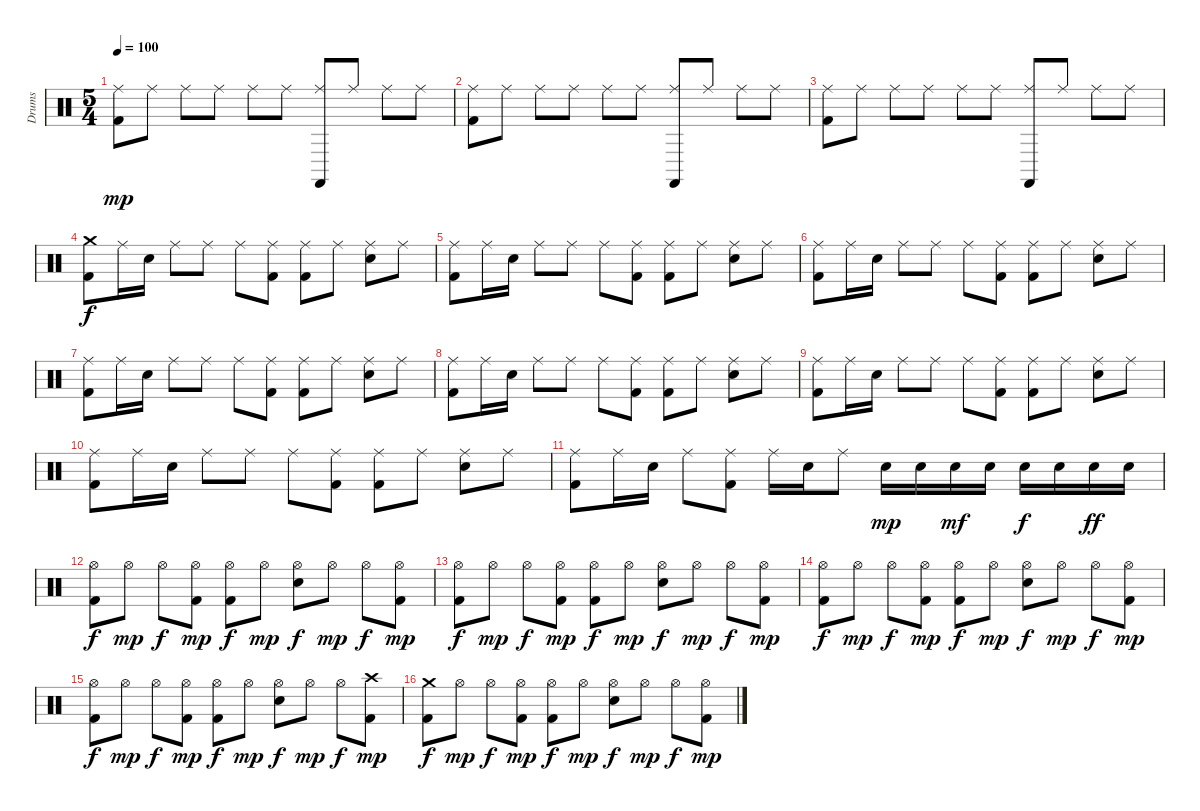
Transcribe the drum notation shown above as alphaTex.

\track ("Drums" "Drums") {instrument percussion}
\staff {score}
\articulation defaults
\ts (5 4)
\tempo 100
\clef neutral
\ks c
("Ride (middle)" "Kick (hit) 2").8{dy mp} "Ride (middle)".8 "Ride (middle)".8 "Ride (middle)".8 "Ride (middle)".8 "Ride (middle)".8 ("Ride (middle)" "Castanets (hit)").8 "Ride (middle)".8 "Ride (middle)".8 "Ride (middle)".8 |
("Ride (middle)" "Kick (hit) 2").8 "Ride (middle)".8 "Ride (middle)".8 "Ride (middle)".8 "Ride (middle)".8 "Ride (middle)".8 ("Ride (middle)" "Castanets (hit)").8 "Ride (middle)".8 "Ride (middle)".8 "Ride (middle)".8 |
("Ride (middle)" "Kick (hit) 2").8 "Ride (middle)".8 "Ride (middle)".8 "Ride (middle)".8 "Ride (middle)".8 "Ride (middle)".8 ("Ride (middle)" "Castanets (hit)").8 "Ride (middle)".8 "Ride (middle)".8 "Ride (middle)".8 |
("Crash medium (hit)" "Kick (hit) 2").8{dy f} "Ride (middle)".16 "Snare (hit) 2".16 "Ride (middle)".8 "Ride (middle)".8 "Ride (middle)".8 ("Ride (middle)" "Kick (hit) 2").8 ("Ride (middle)" "Kick (hit) 2").8 "Ride (middle)".8 ("Ride (middle)" "Snare (hit) 2").8 "Ride (middle)".8 |
("Ride (middle)" "Kick (hit) 2").8 "Ride (middle)".16 "Snare (hit) 2".16 "Ride (middle)".8 "Ride (middle)".8 "Ride (middle)".8 ("Ride (middle)" "Kick (hit) 2").8 ("Ride (middle)" "Kick (hit) 2").8 "Ride (middle)".8 ("Ride (middle)" "Snare (hit) 2").8 "Ride (middle)".8 |
("Ride (middle)" "Kick (hit) 2").8 "Ride (middle)".16 "Snare (hit) 2".16 "Ride (middle)".8 "Ride (middle)".8 "Ride (middle)".8 ("Ride (middle)" "Kick (hit) 2").8 ("Ride (middle)" "Kick (hit) 2").8 "Ride (middle)".8 ("Ride (middle)" "Snare (hit) 2").8 "Ride (middle)".8 |
("Ride (middle)" "Kick (hit) 2").8 "Ride (middle)".16 "Snare (hit) 2".16 "Ride (middle)".8 "Ride (middle)".8 "Ride (middle)".8 ("Ride (middle)" "Kick (hit) 2").8 ("Ride (middle)" "Kick (hit) 2").8 "Ride (middle)".8 ("Ride (middle)" "Snare (hit) 2").8 "Ride (middle)".8 |
("Ride (middle)" "Kick (hit) 2").8 "Ride (middle)".16 "Snare (hit) 2".16 "Ride (middle)".8 "Ride (middle)".8 "Ride (middle)".8 ("Ride (middle)" "Kick (hit) 2").8 ("Ride (middle)" "Kick (hit) 2").8 "Ride (middle)".8 ("Ride (middle)" "Snare (hit) 2").8 "Ride (middle)".8 |
("Ride (middle)" "Kick (hit) 2").8 "Ride (middle)".16 "Snare (hit) 2".16 "Ride (middle)".8 "Ride (middle)".8 "Ride (middle)".8 ("Ride (middle)" "Kick (hit) 2").8 ("Ride (middle)" "Kick (hit) 2").8 "Ride (middle)".8 ("Ride (middle)" "Snare (hit) 2").8 "Ride (middle)".8 |
("Ride (middle)" "Kick (hit) 2").8 "Ride (middle)".16 "Snare (hit) 2".16 "Ride (middle)".8 "Ride (middle)".8 "Ride (middle)".8 ("Ride (middle)" "Kick (hit) 2").8 ("Ride (middle)" "Kick (hit) 2").8 "Ride (middle)".8 ("Ride (middle)" "Snare (hit) 2").8 "Ride (middle)".8 |
("Ride (middle)" "Kick (hit) 2").8 "Ride (middle)".16 "Snare (hit) 2".16 "Ride (middle)".8 ("Ride (middle)" "Kick (hit) 2").8 "Ride (middle)".16 "Snare (hit) 2".16 "Ride (middle)".8 "Snare (hit) 2".16{dy mp} "Snare (hit) 2".16 "Snare (hit) 2".16{dy mf} "Snare (hit) 2".16 "Snare (hit) 2".16{dy f} "Snare (hit) 2".16 "Snare (hit) 2".16{dy ff} "Snare (hit) 2".16 |
("Hi-Hat (open)" "Kick (hit) 2").8{dy f} "Hi-Hat (open)".8{dy mp} "Hi-Hat (open)".8{dy f} ("Hi-Hat (open)" "Kick (hit) 2").8{dy mp} ("Hi-Hat (open)" "Kick (hit) 2").8{dy f} "Hi-Hat (open)".8{dy mp} ("Hi-Hat (open)" "Snare (hit) 2").8{dy f} "Hi-Hat (open)".8{dy mp} "Hi-Hat (open)".8{dy f} ("Hi-Hat (open)" "Kick (hit) 2").8{dy mp} |
("Hi-Hat (open)" "Kick (hit) 2").8{dy f} "Hi-Hat (open)".8{dy mp} "Hi-Hat (open)".8{dy f} ("Hi-Hat (open)" "Kick (hit) 2").8{dy mp} ("Hi-Hat (open)" "Kick (hit) 2").8{dy f} "Hi-Hat (open)".8{dy mp} ("Hi-Hat (open)" "Snare (hit) 2").8{dy f} "Hi-Hat (open)".8{dy mp} "Hi-Hat (open)".8{dy f} ("Hi-Hat (open)" "Kick (hit) 2").8{dy mp} |
("Hi-Hat (open)" "Kick (hit) 2").8{dy f} "Hi-Hat (open)".8{dy mp} "Hi-Hat (open)".8{dy f} ("Hi-Hat (open)" "Kick (hit) 2").8{dy mp} ("Hi-Hat (open)" "Kick (hit) 2").8{dy f} "Hi-Hat (open)".8{dy mp} ("Hi-Hat (open)" "Snare (hit) 2").8{dy f} "Hi-Hat (open)".8{dy mp} "Hi-Hat (open)".8{dy f} ("Hi-Hat (open)" "Kick (hit) 2").8{dy mp} |
("Hi-Hat (open)" "Kick (hit) 2").8{dy f} "Hi-Hat (open)".8{dy mp} "Hi-Hat (open)".8{dy f} ("Hi-Hat (open)" "Kick (hit) 2").8{dy mp} ("Hi-Hat (open)" "Kick (hit) 2").8{dy f} "Hi-Hat (open)".8{dy mp} ("Hi-Hat (open)" "Snare (hit) 2").8{dy f} "Hi-Hat (open)".8{dy mp} "Hi-Hat (open)".8{dy f} ("Crash high (hit)" "Kick (hit) 2").8{dy mp} |
("Crash medium (hit)" "Kick (hit) 2").8{dy f} "Hi-Hat (open)".8{dy mp} "Hi-Hat (open)".8{dy f} ("Hi-Hat (open)" "Kick (hit) 2").8{dy mp} ("Hi-Hat (open)" "Kick (hit) 2").8{dy f} "Hi-Hat (open)".8{dy mp} ("Hi-Hat (open)" "Snare (hit) 2").8{dy f} "Hi-Hat (open)".8{dy mp} "Hi-Hat (open)".8{dy f} ("Hi-Hat (open)" "Kick (hit) 2").8{dy mp}
